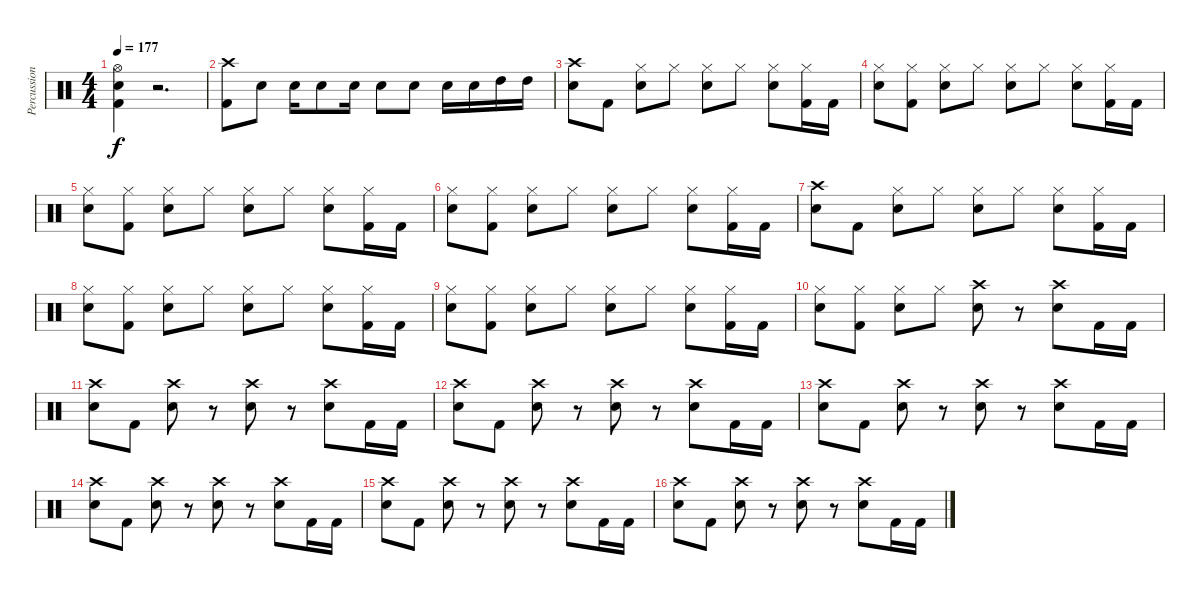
\track ("Percussion" "Percussion") {instrument percussion}
\staff {score}
\articulation defaults
\ts (4 4)
\tempo 177
\clef neutral
\ks c
("Hi-Hat (open)" "Snare (hit) 2" "Kick (hit) 2").4{dy f} r.2{d} |
("Crash high (hit)" "Kick (hit) 2").8 "Snare (hit) 2".8 "Snare (hit) 2".16 "Snare (hit) 2".8 "Snare (hit) 2".16 "Snare (hit) 2".8 "Snare (hit) 2".8 "Snare (hit) 2".16 "Snare (hit) 2".16 "High Tom (hit)".16 "High Tom (hit)".16 |
("Crash high (hit)" "Snare (hit) 2").8 "Kick (hit) 2".8 ("Hi-Hat (closed)" "Snare (hit) 2").8 "Hi-Hat (closed)".8 ("Hi-Hat (closed)" "Snare (hit) 2").8 "Hi-Hat (closed)".8 ("Hi-Hat (closed)" "Snare (hit) 2").8 ("Hi-Hat (closed)" "Kick (hit) 2").16 "Kick (hit) 2".16 |
("Hi-Hat (closed)" "Snare (hit) 2").8 ("Hi-Hat (closed)" "Kick (hit) 2").8 ("Hi-Hat (closed)" "Snare (hit) 2").8 "Hi-Hat (closed)".8 ("Hi-Hat (closed)" "Snare (hit) 2").8 "Hi-Hat (closed)".8 ("Hi-Hat (closed)" "Snare (hit) 2").8 ("Hi-Hat (closed)" "Kick (hit) 2").16 "Kick (hit) 2".16 |
("Hi-Hat (closed)" "Snare (hit) 2").8 ("Hi-Hat (closed)" "Kick (hit) 2").8 ("Hi-Hat (closed)" "Snare (hit) 2").8 "Hi-Hat (closed)".8 ("Hi-Hat (closed)" "Snare (hit) 2").8 "Hi-Hat (closed)".8 ("Hi-Hat (closed)" "Snare (hit) 2").8 ("Hi-Hat (closed)" "Kick (hit) 2").16 "Kick (hit) 2".16 |
("Hi-Hat (closed)" "Snare (hit) 2").8 ("Hi-Hat (closed)" "Kick (hit) 2").8 ("Hi-Hat (closed)" "Snare (hit) 2").8 "Hi-Hat (closed)".8 ("Hi-Hat (closed)" "Snare (hit) 2").8 "Hi-Hat (closed)".8 ("Hi-Hat (closed)" "Snare (hit) 2").8 ("Hi-Hat (closed)" "Kick (hit) 2").16 "Kick (hit) 2".16 |
("Crash high (hit)" "Snare (hit) 2").8 "Kick (hit) 2".8 ("Hi-Hat (closed)" "Snare (hit) 2").8 "Hi-Hat (closed)".8 ("Hi-Hat (closed)" "Snare (hit) 2").8 "Hi-Hat (closed)".8 ("Hi-Hat (closed)" "Snare (hit) 2").8 ("Hi-Hat (closed)" "Kick (hit) 2").16 "Kick (hit) 2".16 |
("Hi-Hat (closed)" "Snare (hit) 2").8 ("Hi-Hat (closed)" "Kick (hit) 2").8 ("Hi-Hat (closed)" "Snare (hit) 2").8 "Hi-Hat (closed)".8 ("Hi-Hat (closed)" "Snare (hit) 2").8 "Hi-Hat (closed)".8 ("Hi-Hat (closed)" "Snare (hit) 2").8 ("Hi-Hat (closed)" "Kick (hit) 2").16 "Kick (hit) 2".16 |
("Hi-Hat (closed)" "Snare (hit) 2").8 ("Hi-Hat (closed)" "Kick (hit) 2").8 ("Hi-Hat (closed)" "Snare (hit) 2").8 "Hi-Hat (closed)".8 ("Hi-Hat (closed)" "Snare (hit) 2").8 "Hi-Hat (closed)".8 ("Hi-Hat (closed)" "Snare (hit) 2").8 ("Hi-Hat (closed)" "Kick (hit) 2").16 "Kick (hit) 2".16 |
("Hi-Hat (closed)" "Snare (hit) 2").8 ("Hi-Hat (closed)" "Kick (hit) 2").8 ("Hi-Hat (closed)" "Snare (hit) 2").8 "Hi-Hat (closed)".8 ("Crash high (hit)" "Snare (hit) 2").8 r.8 ("Crash high (hit)" "Snare (hit) 2").8 "Kick (hit) 2".16 "Kick (hit) 2".16 |
("Crash high (hit)" "Snare (hit) 2").8 "Kick (hit) 2".8 ("Crash high (hit)" "Snare (hit) 2").8 r.8 ("Crash high (hit)" "Snare (hit) 2").8 r.8 ("Crash high (hit)" "Snare (hit) 2").8 "Kick (hit) 2".16 "Kick (hit) 2".16 |
("Crash high (hit)" "Snare (hit) 2").8 "Kick (hit) 2".8 ("Crash high (hit)" "Snare (hit) 2").8 r.8 ("Crash high (hit)" "Snare (hit) 2").8 r.8 ("Crash high (hit)" "Snare (hit) 2").8 "Kick (hit) 2".16 "Kick (hit) 2".16 |
("Crash high (hit)" "Snare (hit) 2").8 "Kick (hit) 2".8 ("Crash high (hit)" "Snare (hit) 2").8 r.8 ("Crash high (hit)" "Snare (hit) 2").8 r.8 ("Crash high (hit)" "Snare (hit) 2").8 "Kick (hit) 2".16 "Kick (hit) 2".16 |
("Crash high (hit)" "Snare (hit) 2").8 "Kick (hit) 2".8 ("Crash high (hit)" "Snare (hit) 2").8 r.8 ("Crash high (hit)" "Snare (hit) 2").8 r.8 ("Crash high (hit)" "Snare (hit) 2").8 "Kick (hit) 2".16 "Kick (hit) 2".16 |
("Crash high (hit)" "Snare (hit) 2").8 "Kick (hit) 2".8 ("Crash high (hit)" "Snare (hit) 2").8 r.8 ("Crash high (hit)" "Snare (hit) 2").8 r.8 ("Crash high (hit)" "Snare (hit) 2").8 "Kick (hit) 2".16 "Kick (hit) 2".16 |
("Crash high (hit)" "Snare (hit) 2").8 "Kick (hit) 2".8 ("Crash high (hit)" "Snare (hit) 2").8 r.8 ("Crash high (hit)" "Snare (hit) 2").8 r.8 ("Crash high (hit)" "Snare (hit) 2").8 "Kick (hit) 2".16 "Kick (hit) 2".16
